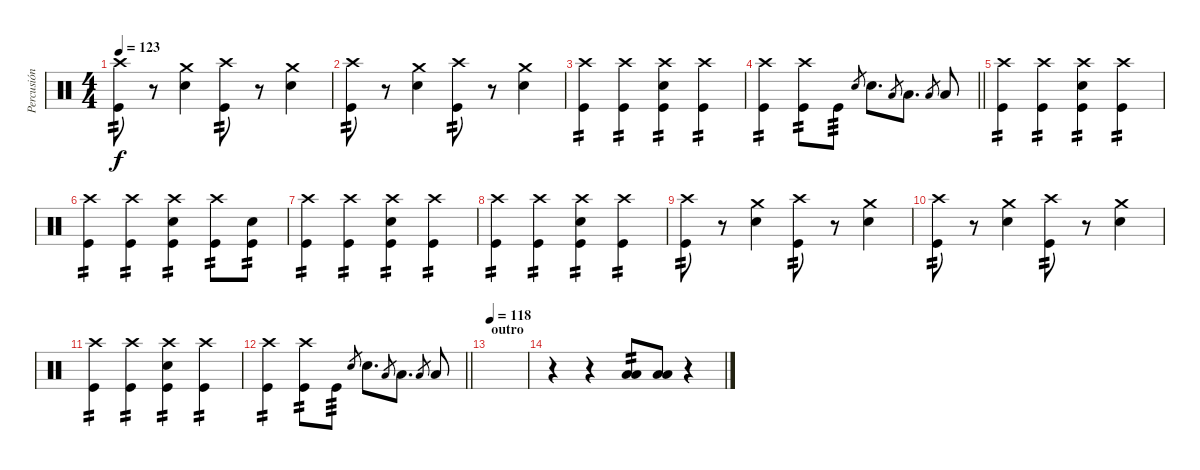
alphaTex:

\track ("Percusión" "Percusión") {instrument percussion}
\staff {score}
\articulation defaults
\ts (4 4)
\tempo 123
\clef neutral
\ks aminor
("Crash high (hit)" "Kick (hit)").8{tp 2 dy f} r.8 ("Crash medium (hit)" "Electric Snare (hit)").4 ("Crash high (hit)" "Kick (hit)").8{tp 2} r.8 ("Crash medium (hit)" "Electric Snare (hit)").4 |
("Crash high (hit)" "Kick (hit)").8{tp 2} r.8 ("Crash medium (hit)" "Electric Snare (hit)").4 ("Crash high (hit)" "Kick (hit)").8{tp 2} r.8 ("Crash medium (hit)" "Electric Snare (hit)").4 |
("Crash high (hit)" "Kick (hit)").4{tp 2} ("Crash high (hit)" "Kick (hit)").4{tp 2} ("Crash high (hit)" "Electric Snare (hit)" "Kick (hit)").4{tp 2} ("Crash high (hit)" "Kick (hit)").4{tp 2} |
\barLineRight lightlight
("Crash high (hit)" "Kick (hit)").4{tp 2} ("Crash high (hit)" "Kick (hit)").8{tp 2} "Kick (hit)".8{tp 3} "Electric Snare (hit)".8{gr} "Electric Snare (hit)".8{d} "Low Tom (hit)".8{gr} "Low Tom (hit)".8{d} "Low Floor Tom (hit)".8{gr} "Low Floor Tom (hit)".8 |
("Crash high (hit)" "Kick (hit)").4{tp 2} ("Crash high (hit)" "Kick (hit)").4{tp 2} ("Crash high (hit)" "Electric Snare (hit)" "Kick (hit)").4{tp 2} ("Crash high (hit)" "Kick (hit)").4{tp 2} |
("Crash high (hit)" "Kick (hit)").4{tp 2} ("Crash high (hit)" "Kick (hit)").4{tp 2} ("Crash high (hit)" "Electric Snare (hit)" "Kick (hit)").4{tp 2} ("Crash high (hit)" "Kick (hit)").8{tp 2} ("Electric Snare (hit)" "Kick (hit)").8{tp 2} |
("Crash high (hit)" "Kick (hit)").4{tp 2} ("Crash high (hit)" "Kick (hit)").4{tp 2} ("Crash high (hit)" "Electric Snare (hit)" "Kick (hit)").4{tp 2} ("Crash high (hit)" "Kick (hit)").4{tp 2} |
("Crash high (hit)" "Kick (hit)").4{tp 2} ("Crash high (hit)" "Kick (hit)").4{tp 2} ("Crash high (hit)" "Electric Snare (hit)" "Kick (hit)").4{tp 2} ("Crash high (hit)" "Kick (hit)").4{tp 2} |
("Crash high (hit)" "Kick (hit)").8{tp 2} r.8 ("Crash medium (hit)" "Electric Snare (hit)").4 ("Crash high (hit)" "Kick (hit)").8{tp 2} r.8 ("Crash medium (hit)" "Electric Snare (hit)").4 |
("Crash high (hit)" "Kick (hit)").8{tp 2} r.8 ("Crash medium (hit)" "Electric Snare (hit)").4 ("Crash high (hit)" "Kick (hit)").8{tp 2} r.8 ("Crash medium (hit)" "Electric Snare (hit)").4 |
("Crash high (hit)" "Kick (hit)").4{tp 2} ("Crash high (hit)" "Kick (hit)").4{tp 2} ("Crash high (hit)" "Electric Snare (hit)" "Kick (hit)").4{tp 2} ("Crash high (hit)" "Kick (hit)").4{tp 2} |
\barLineRight lightlight
("Crash high (hit)" "Kick (hit)").4{tp 2} ("Crash high (hit)" "Kick (hit)").8{tp 2} "Kick (hit)".8{tp 3} "Electric Snare (hit)".8{gr} "Electric Snare (hit)".8{d} "Low Tom (hit)".8{gr} "Low Tom (hit)".8{d} "Low Floor Tom (hit)".8{gr} "Low Floor Tom (hit)".8 |
\section ("" "outro")
\tempo 118
|
r.4 r.4 ("Low Tom (hit)" "Low Floor Tom (hit)").8{tp 2} ("Low Tom (hit)" "Low Floor Tom (hit)").8 r.4
